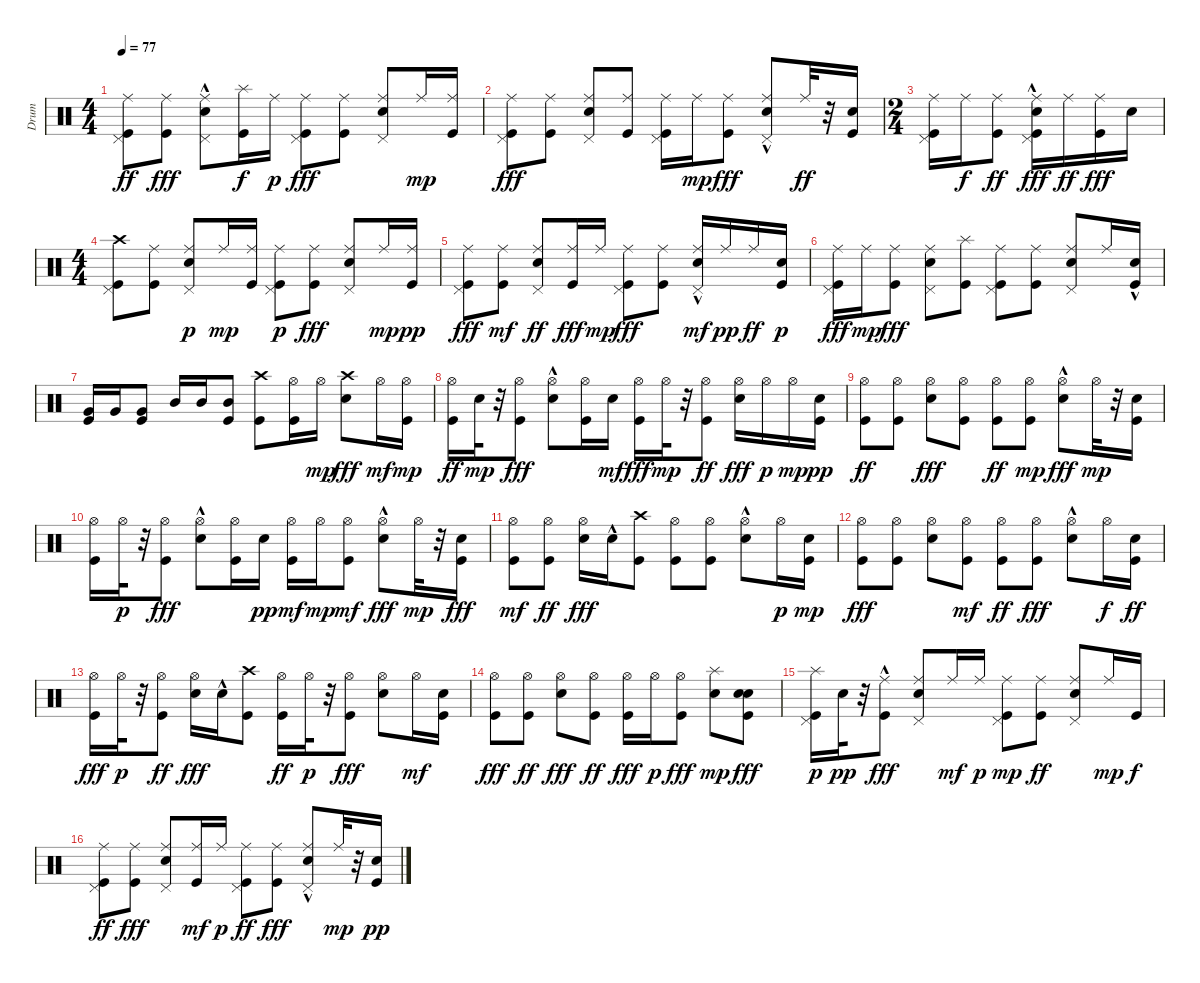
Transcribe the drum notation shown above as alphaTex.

\track ("Drum" "Drum") {instrument percussion}
\staff {score}
\articulation defaults
\ts (4 4)
\tempo 77
\clef neutral
\ks c
("Kick (hit)" "Pedal Hi-Hat (hit)" "Ride (middle)").8{dy ff} ("Kick (hit)" "Ride (middle)").8{dy fff} ("Snare (hit) 2" "Pedal Hi-Hat (hit)" "Ride (middle)"{hac}).8 ("Kick (hit)" "Splash (hit)").16{dy f} "Ride (middle)".16{dy p} ("Kick (hit)" "Pedal Hi-Hat (hit)" "Ride (middle)").8{dy fff} ("Kick (hit)" "Ride (middle)").8 ("Snare (hit) 2" "Pedal Hi-Hat (hit)" "Ride (middle)").8 "Ride (middle)".16{dy mp} ("Kick (hit)" "Ride (middle)").16 |
("Kick (hit)" "Pedal Hi-Hat (hit)" "Ride (middle)").8{dy fff} ("Kick (hit)" "Ride (middle)").8 ("Snare (hit) 2" "Pedal Hi-Hat (hit)" "Ride (middle)").8 ("Kick (hit)" "Ride (middle)").8 ("Kick (hit)" "Pedal Hi-Hat (hit)" "Ride (middle)").16 "Ride (middle)".16{dy mp} ("Kick (hit)" "Ride (middle)").8{dy fff} ("Snare (hit) 2"{hac} "Pedal Hi-Hat (hit)" "Ride (middle)").8 "Ride (middle)".32{dy ff} r.32 ("Kick (hit)" "Snare (hit) 2").16 |
\ts (2 4)
("Kick (hit)" "Pedal Hi-Hat (hit)" "Ride (middle)").16 "Ride (middle)".16{dy f} ("Kick (hit)" "Ride (middle)").8{dy ff} ("Kick (hit)" "Snare (hit) 2"{hac} "Pedal Hi-Hat (hit)" "Ride (middle)").16{dy fff} "Ride (middle)".16{dy ff} ("Kick (hit)" "Ride (middle)").16{dy fff} "Snare (hit) 2".16 |
\ts (4 4)
("Kick (hit)" "Pedal Hi-Hat (hit)" "Crash high (hit)").8 ("Kick (hit)" "Ride (middle)").8 ("Snare (hit) 2" "Pedal Hi-Hat (hit)" "Ride (middle)").8{dy p} "Ride (middle)".16{dy mp} ("Kick (hit)" "Ride (middle)").16 ("Kick (hit)" "Pedal Hi-Hat (hit)" "Ride (middle)").8{dy p} ("Kick (hit)" "Ride (middle)").8{dy fff} ("Snare (hit) 2" "Pedal Hi-Hat (hit)" "Ride (middle)").8 "Ride (middle)".16{dy mp} ("Kick (hit)" "Ride (middle)").16{dy pp} |
("Kick (hit)" "Pedal Hi-Hat (hit)" "Ride (middle)").8{dy fff} ("Kick (hit)" "Ride (middle)").8{dy mf} ("Snare (hit) 2" "Pedal Hi-Hat (hit)" "Ride (middle)").8{dy ff} ("Kick (hit)" "Ride (middle)").16{dy fff} "Ride (middle)".16{dy mp} ("Kick (hit)" "Pedal Hi-Hat (hit)" "Ride (middle)").8{dy fff} ("Kick (hit)" "Ride (middle)").8 ("Snare (hit) 2"{hac} "Pedal Hi-Hat (hit)" "Ride (middle)").16{dy mf} "Ride (middle)".16{dy pp} "Ride (middle)".16{dy ff} ("Kick (hit)" "Snare (hit) 2").16{dy p} |
("Kick (hit)" "Pedal Hi-Hat (hit)" "Ride (middle)").16{dy fff} "Ride (middle)".16{dy mp} ("Kick (hit)" "Ride (middle)").8{dy fff} ("Snare (hit) 2" "Pedal Hi-Hat (hit)" "Ride (middle)").8 ("Kick (hit)" "Splash (hit)").8 ("Kick (hit)" "Pedal Hi-Hat (hit)" "Ride (middle)").8 ("Kick (hit)" "Ride (middle)").8 ("Snare (hit) 2" "Pedal Hi-Hat (hit)" "Ride (middle)").8 "Ride (middle)".16 ("Kick (hit)" "Snare (hit) 2"{hac}).16 |
("Kick (hit)" "Very Low Tom (hit)").16 "Very Low Tom (hit)".16 ("Kick (hit)" "Very Low Tom (hit)").8 "Mid Tom (hit)".16 "Mid Tom (hit)".16 ("Kick (hit)" "Mid Tom (hit)").8 ("Kick (hit)" "Crash high (hit)").8 ("Kick (hit)" "Hi-Hat (open)").16 "Hi-Hat (open)".16{dy mp} ("Crash high (hit)" "Snare (hit) 2").8{dy fff} "Hi-Hat (open)".16{dy mf} ("Kick (hit)" "Hi-Hat (open)").16{dy mp} |
("Kick (hit)" "Hi-Hat (open)").16{dy ff} "Snare (hit) 2".32{dy mp} r.32 ("Kick (hit)" "Hi-Hat (open)").8{dy fff} ("Hi-Hat (open)" "Snare (hit) 2"{hac}).8 ("Kick (hit)" "Hi-Hat (open)").16 "Snare (hit) 2".16{dy mf} ("Kick (hit)" "Hi-Hat (open)").16{dy fff} "Hi-Hat (open)".32{dy mp} r.32 ("Kick (hit)" "Hi-Hat (open)").8{dy ff} ("Hi-Hat (open)" "Snare (hit) 2").16{dy fff} "Hi-Hat (open)".16{dy p} "Hi-Hat (open)".16{dy mp} ("Kick (hit)" "Snare (hit) 2").16{dy pp} |
("Kick (hit)" "Hi-Hat (open)").8{dy ff} ("Kick (hit)" "Hi-Hat (open)").8 ("Hi-Hat (open)" "Snare (hit) 2").8{dy fff} ("Kick (hit)" "Hi-Hat (open)").8 ("Kick (hit)" "Hi-Hat (open)").8{dy ff} ("Kick (hit)" "Hi-Hat (open)").8{dy mp} ("Hi-Hat (open)" "Snare (hit) 2"{hac}).8{dy fff} "Hi-Hat (open)".32{dy mp} r.32 ("Kick (hit)" "Snare (hit) 2").16 |
("Kick (hit)" "Hi-Hat (open)").16 "Hi-Hat (open)".32{dy p} r.32 ("Kick (hit)" "Hi-Hat (open)").8{dy fff} ("Hi-Hat (open)" "Snare (hit) 2"{hac}).8 ("Kick (hit)" "Hi-Hat (open)").16 "Snare (hit) 2".16{dy pp} ("Kick (hit)" "Hi-Hat (open)").16{dy mf} "Hi-Hat (open)".16{dy mp} ("Kick (hit)" "Hi-Hat (open)").8{dy mf} ("Hi-Hat (open)" "Snare (hit) 2"{hac}).8{dy fff} "Hi-Hat (open)".32{dy mp} r.32 ("Kick (hit)" "Snare (hit) 2").16{dy fff} |
("Kick (hit)" "Hi-Hat (open)").8{dy mf} ("Kick (hit)" "Hi-Hat (open)").8{dy ff} ("Hi-Hat (open)" "Snare (hit) 2").16{dy fff} "Snare (hit) 2"{hac}.16 ("Kick (hit)" "Crash high (hit)").8 ("Kick (hit)" "Hi-Hat (open)").8 ("Kick (hit)" "Hi-Hat (open)").8 ("Hi-Hat (open)" "Snare (hit) 2"{hac}).8 "Hi-Hat (open)".16{dy p} ("Kick (hit)" "Snare (hit) 2").16{dy mp} |
("Kick (hit)" "Hi-Hat (open)").8{dy fff} ("Kick (hit)" "Hi-Hat (open)").8 ("Hi-Hat (open)" "Snare (hit) 2").8 ("Kick (hit)" "Hi-Hat (open)").8{dy mf} ("Kick (hit)" "Hi-Hat (open)").8{dy ff} ("Kick (hit)" "Hi-Hat (open)").8{dy fff} ("Hi-Hat (open)" "Snare (hit) 2"{hac}).8 "Hi-Hat (open)".16{dy f} ("Kick (hit)" "Snare (hit) 2").16{dy ff} |
("Kick (hit)" "Hi-Hat (open)").16{dy fff} "Hi-Hat (open)".32{dy p} r.32 ("Kick (hit)" "Hi-Hat (open)").8{dy ff} ("Hi-Hat (open)" "Snare (hit) 2").16{dy fff} "Snare (hit) 2"{hac}.16 ("Kick (hit)" "Crash high (hit)").8 ("Kick (hit)" "Hi-Hat (open)").16{dy ff} "Hi-Hat (open)".32{dy p} r.32 ("Kick (hit)" "Hi-Hat (open)").8{dy fff} ("Hi-Hat (open)" "Snare (hit) 2").8 "Hi-Hat (open)".16{dy mf} ("Kick (hit)" "Snare (hit) 2").16 |
("Kick (hit)" "Hi-Hat (open)").8{dy fff} ("Kick (hit)" "Hi-Hat (open)").8{dy ff} ("Hi-Hat (open)" "Snare (hit) 2").8{dy fff} ("Kick (hit)" "Hi-Hat (open)").8{dy ff} ("Kick (hit)" "Hi-Hat (open)").16{dy fff} "Hi-Hat (open)".16{dy p} ("Kick (hit)" "Hi-Hat (open)").8{dy fff} ("Splash (hit)" "Snare (hit) 2").8{dy mp} ("Snare (hit) 2" "Kick (hit)" "Snare (hit) 2").8{dy fff} |
("Splash (hit)" "Kick (hit)" "Pedal Hi-Hat (hit)").16{dy p} "Snare (hit) 2".32{dy pp} r.32 ("Kick (hit)"{hac} "Ride (middle)").8{dy fff} ("Pedal Hi-Hat (hit)" "Snare (hit) 2" "Ride (middle)").8 "Ride (middle)".16{dy mf} "Ride (middle)".16{dy p} ("Kick (hit)" "Pedal Hi-Hat (hit)" "Ride (middle)").8{dy mp} ("Kick (hit)" "Ride (middle)").8{dy ff} ("Pedal Hi-Hat (hit)" "Snare (hit) 2" "Ride (middle)").8 "Ride (middle)".16{dy mp} "Kick (hit)".16{dy f} |
("Kick (hit)" "Pedal Hi-Hat (hit)" "Ride (middle)").8{dy ff} ("Kick (hit)" "Ride (middle)").8{dy fff} ("Pedal Hi-Hat (hit)" "Snare (hit) 2" "Ride (middle)").8 ("Kick (hit)" "Ride (middle)").16{dy mf} "Ride (middle)".16{dy p} ("Kick (hit)" "Pedal Hi-Hat (hit)" "Ride (middle)").8{dy ff} ("Kick (hit)" "Ride (middle)").8{dy fff} ("Pedal Hi-Hat (hit)" "Snare (hit) 2"{hac} "Ride (middle)").8 "Ride (middle)".32{dy mp} r.32 ("Kick (hit)" "Snare (hit) 2").16{dy pp}
